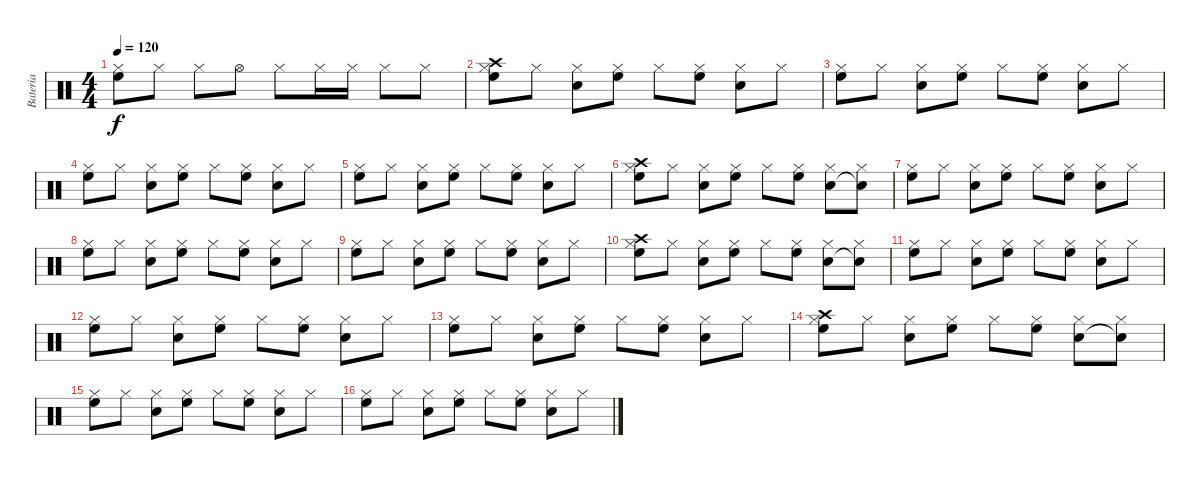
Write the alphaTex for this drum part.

\track ("Bateria" "Bateria") {instrument percussion}
\staff {score}
\articulation defaults
\ts (4 4)
\tempo 120
\clef neutral
\ks c
("Hi-Hat (closed)" "High Floor Tom (hit)").8{dy f} "Hi-Hat (closed)".8 "Hi-Hat (closed)".8 "Hi-Hat (open)".8 "Hi-Hat (closed)".8 "Hi-Hat (closed)".16 "Hi-Hat (closed)".16 "Hi-Hat (closed)".8 "Hi-Hat (closed)".8 |
("Hi-Hat (closed)" "Crash high (hit)" "High Floor Tom (hit)").8 "Hi-Hat (closed)".8 ("Hi-Hat (closed)" "Snare (hit) 2").8 ("Hi-Hat (closed)" "High Floor Tom (hit)").8 "Hi-Hat (closed)".8 ("Hi-Hat (closed)" "High Floor Tom (hit)").8 ("Hi-Hat (closed)" "Snare (hit) 2").8 "Hi-Hat (closed)".8 |
("Hi-Hat (closed)" "High Floor Tom (hit)").8 "Hi-Hat (closed)".8 ("Hi-Hat (closed)" "Snare (hit) 2").8 ("Hi-Hat (closed)" "High Floor Tom (hit)").8 "Hi-Hat (closed)".8 ("Hi-Hat (closed)" "High Floor Tom (hit)").8 ("Hi-Hat (closed)" "Snare (hit) 2").8 "Hi-Hat (closed)".8 |
("Hi-Hat (closed)" "High Floor Tom (hit)").8 "Hi-Hat (closed)".8 ("Hi-Hat (closed)" "Snare (hit) 2").8 ("Hi-Hat (closed)" "High Floor Tom (hit)").8 "Hi-Hat (closed)".8 ("Hi-Hat (closed)" "High Floor Tom (hit)").8 ("Hi-Hat (closed)" "Snare (hit) 2").8 "Hi-Hat (closed)".8 |
("Hi-Hat (closed)" "High Floor Tom (hit)").8 "Hi-Hat (closed)".8 ("Hi-Hat (closed)" "Snare (hit) 2").8 ("Hi-Hat (closed)" "High Floor Tom (hit)").8 "Hi-Hat (closed)".8 ("Hi-Hat (closed)" "High Floor Tom (hit)").8 ("Hi-Hat (closed)" "Snare (hit) 2").8 "Hi-Hat (closed)".8 |
("Hi-Hat (closed)" "Crash high (hit)" "High Floor Tom (hit)").8 "Hi-Hat (closed)".8 ("Hi-Hat (closed)" "Snare (hit) 2").8 ("Hi-Hat (closed)" "High Floor Tom (hit)").8 "Hi-Hat (closed)".8 ("Hi-Hat (closed)" "High Floor Tom (hit)").8 ("Hi-Hat (closed)" "Snare (hit) 2").8 ("Hi-Hat (closed)" "Snare (hit)"{t}).8 |
("Hi-Hat (closed)" "High Floor Tom (hit)").8 "Hi-Hat (closed)".8 ("Hi-Hat (closed)" "Snare (hit) 2").8 ("Hi-Hat (closed)" "High Floor Tom (hit)").8 "Hi-Hat (closed)".8 ("Hi-Hat (closed)" "High Floor Tom (hit)").8 ("Hi-Hat (closed)" "Snare (hit) 2").8 "Hi-Hat (closed)".8 |
("Hi-Hat (closed)" "High Floor Tom (hit)").8 "Hi-Hat (closed)".8 ("Hi-Hat (closed)" "Snare (hit) 2").8 ("Hi-Hat (closed)" "High Floor Tom (hit)").8 "Hi-Hat (closed)".8 ("Hi-Hat (closed)" "High Floor Tom (hit)").8 ("Hi-Hat (closed)" "Snare (hit) 2").8 "Hi-Hat (closed)".8 |
("Hi-Hat (closed)" "High Floor Tom (hit)").8 "Hi-Hat (closed)".8 ("Hi-Hat (closed)" "Snare (hit) 2").8 ("Hi-Hat (closed)" "High Floor Tom (hit)").8 "Hi-Hat (closed)".8 ("Hi-Hat (closed)" "High Floor Tom (hit)").8 ("Hi-Hat (closed)" "Snare (hit) 2").8 "Hi-Hat (closed)".8 |
("Hi-Hat (closed)" "Crash high (hit)" "High Floor Tom (hit)").8 "Hi-Hat (closed)".8 ("Hi-Hat (closed)" "Snare (hit) 2").8 ("Hi-Hat (closed)" "High Floor Tom (hit)").8 "Hi-Hat (closed)".8 ("Hi-Hat (closed)" "High Floor Tom (hit)").8 ("Hi-Hat (closed)" "Snare (hit) 2").8 ("Hi-Hat (closed)" "Snare (hit)"{t}).8 |
("Hi-Hat (closed)" "High Floor Tom (hit)").8 "Hi-Hat (closed)".8 ("Hi-Hat (closed)" "Snare (hit) 2").8 ("Hi-Hat (closed)" "High Floor Tom (hit)").8 "Hi-Hat (closed)".8 ("Hi-Hat (closed)" "High Floor Tom (hit)").8 ("Hi-Hat (closed)" "Snare (hit) 2").8 "Hi-Hat (closed)".8 |
("Hi-Hat (closed)" "High Floor Tom (hit)").8 "Hi-Hat (closed)".8 ("Hi-Hat (closed)" "Snare (hit) 2").8 ("Hi-Hat (closed)" "High Floor Tom (hit)").8 "Hi-Hat (closed)".8 ("Hi-Hat (closed)" "High Floor Tom (hit)").8 ("Hi-Hat (closed)" "Snare (hit) 2").8 "Hi-Hat (closed)".8 |
("Hi-Hat (closed)" "High Floor Tom (hit)").8 "Hi-Hat (closed)".8 ("Hi-Hat (closed)" "Snare (hit) 2").8 ("Hi-Hat (closed)" "High Floor Tom (hit)").8 "Hi-Hat (closed)".8 ("Hi-Hat (closed)" "High Floor Tom (hit)").8 ("Hi-Hat (closed)" "Snare (hit) 2").8 "Hi-Hat (closed)".8 |
("Hi-Hat (closed)" "Crash high (hit)" "High Floor Tom (hit)").8 "Hi-Hat (closed)".8 ("Hi-Hat (closed)" "Snare (hit) 2").8 ("Hi-Hat (closed)" "High Floor Tom (hit)").8 "Hi-Hat (closed)".8 ("Hi-Hat (closed)" "High Floor Tom (hit)").8 ("Hi-Hat (closed)" "Snare (hit) 2").8 ("Hi-Hat (closed)" "Snare (hit)"{t}).8 |
("Hi-Hat (closed)" "High Floor Tom (hit)").8 "Hi-Hat (closed)".8 ("Hi-Hat (closed)" "Snare (hit) 2").8 ("Hi-Hat (closed)" "High Floor Tom (hit)").8 "Hi-Hat (closed)".8 ("Hi-Hat (closed)" "High Floor Tom (hit)").8 ("Hi-Hat (closed)" "Snare (hit) 2").8 "Hi-Hat (closed)".8 |
("Hi-Hat (closed)" "High Floor Tom (hit)").8 "Hi-Hat (closed)".8 ("Hi-Hat (closed)" "Snare (hit) 2").8 ("Hi-Hat (closed)" "High Floor Tom (hit)").8 "Hi-Hat (closed)".8 ("Hi-Hat (closed)" "High Floor Tom (hit)").8 ("Hi-Hat (closed)" "Snare (hit) 2").8 "Hi-Hat (closed)".8
